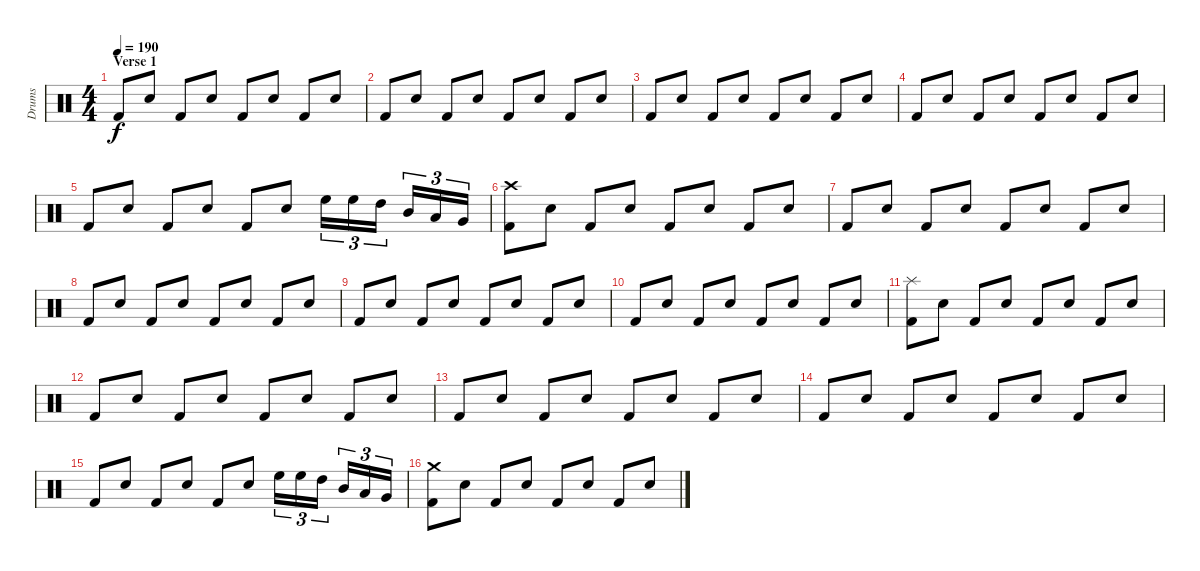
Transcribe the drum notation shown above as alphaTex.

\track ("Drums" "Drums") {instrument percussion}
\staff {score}
\articulation defaults
\ts (4 4)
\section ("" "Verse 1")
\tempo 190
\clef neutral
\ks c "Kick (hit) 2".8{dy f} "Snare (hit) 2".8 "Kick (hit) 2".8 "Snare (hit) 2".8 "Kick (hit) 2".8 "Snare (hit) 2".8 "Kick (hit) 2".8 "Snare (hit) 2".8
|
"Kick (hit) 2".8 "Snare (hit) 2".8 "Kick (hit) 2".8 "Snare (hit) 2".8 "Kick (hit) 2".8 "Snare (hit) 2".8 "Kick (hit) 2".8 "Snare (hit) 2".8 |
"Kick (hit) 2".8 "Snare (hit) 2".8 "Kick (hit) 2".8 "Snare (hit) 2".8 "Kick (hit) 2".8 "Snare (hit) 2".8 "Kick (hit) 2".8 "Snare (hit) 2".8 |
"Kick (hit) 2".8 "Snare (hit) 2".8 "Kick (hit) 2".8 "Snare (hit) 2".8 "Kick (hit) 2".8 "Snare (hit) 2".8 "Kick (hit) 2".8 "Snare (hit) 2".8 |
"Kick (hit) 2".8 "Snare (hit) 2".8 "Kick (hit) 2".8 "Snare (hit) 2".8 "Kick (hit) 2".8 "Snare (hit) 2".8 "High Floor Tom (hit)".16{tu (3 2)} "High Floor Tom (hit)".16{tu (3 2)} "High Tom (hit)".16{tu (3 2)} "Mid Tom (hit)".16{tu (3 2)} "Low Tom (hit)".16{tu (3 2)} "Very Low Tom (hit)".16{tu (3 2)} |
("Crash high (hit)" "Kick (hit) 2").8 "Snare (hit) 2".8 "Kick (hit) 2".8 "Snare (hit) 2".8 "Kick (hit) 2".8 "Snare (hit) 2".8 "Kick (hit) 2".8 "Snare (hit) 2".8 |
"Kick (hit) 2".8 "Snare (hit) 2".8 "Kick (hit) 2".8 "Snare (hit) 2".8 "Kick (hit) 2".8 "Snare (hit) 2".8 "Kick (hit) 2".8 "Snare (hit) 2".8 |
"Kick (hit) 2".8 "Snare (hit) 2".8 "Kick (hit) 2".8 "Snare (hit) 2".8 "Kick (hit) 2".8 "Snare (hit) 2".8 "Kick (hit) 2".8 "Snare (hit) 2".8 |
"Kick (hit) 2".8 "Snare (hit) 2".8 "Kick (hit) 2".8 "Snare (hit) 2".8 "Kick (hit) 2".8 "Snare (hit) 2".8 "Kick (hit) 2".8 "Snare (hit) 2".8 |
"Kick (hit) 2".8 "Snare (hit) 2".8 "Kick (hit) 2".8 "Snare (hit) 2".8 "Kick (hit) 2".8 "Snare (hit) 2".8 "Kick (hit) 2".8 "Snare (hit) 2".8 |
("Splash (hit)" "Kick (hit) 2").8 "Snare (hit) 2".8 "Kick (hit) 2".8 "Snare (hit) 2".8 "Kick (hit) 2".8 "Snare (hit) 2".8 "Kick (hit) 2".8 "Snare (hit) 2".8 |
"Kick (hit) 2".8 "Snare (hit) 2".8 "Kick (hit) 2".8 "Snare (hit) 2".8 "Kick (hit) 2".8 "Snare (hit) 2".8 "Kick (hit) 2".8 "Snare (hit) 2".8 |
"Kick (hit) 2".8 "Snare (hit) 2".8 "Kick (hit) 2".8 "Snare (hit) 2".8 "Kick (hit) 2".8 "Snare (hit) 2".8 "Kick (hit) 2".8 "Snare (hit) 2".8 |
"Kick (hit) 2".8 "Snare (hit) 2".8 "Kick (hit) 2".8 "Snare (hit) 2".8 "Kick (hit) 2".8 "Snare (hit) 2".8 "Kick (hit) 2".8 "Snare (hit) 2".8 |
"Kick (hit) 2".8 "Snare (hit) 2".8 "Kick (hit) 2".8 "Snare (hit) 2".8 "Kick (hit) 2".8 "Snare (hit) 2".8 "High Floor Tom (hit)".16{tu (3 2)} "High Floor Tom (hit)".16{tu (3 2)} "High Tom (hit)".16{tu (3 2)} "Mid Tom (hit)".16{tu (3 2)} "Low Tom (hit)".16{tu (3 2)} "Very Low Tom (hit)".16{tu (3 2)} |
("Crash medium (hit)" "Kick (hit) 2").8 "Snare (hit) 2".8 "Kick (hit) 2".8 "Snare (hit) 2".8 "Kick (hit) 2".8 "Snare (hit) 2".8 "Kick (hit) 2".8 "Snare (hit) 2".8
